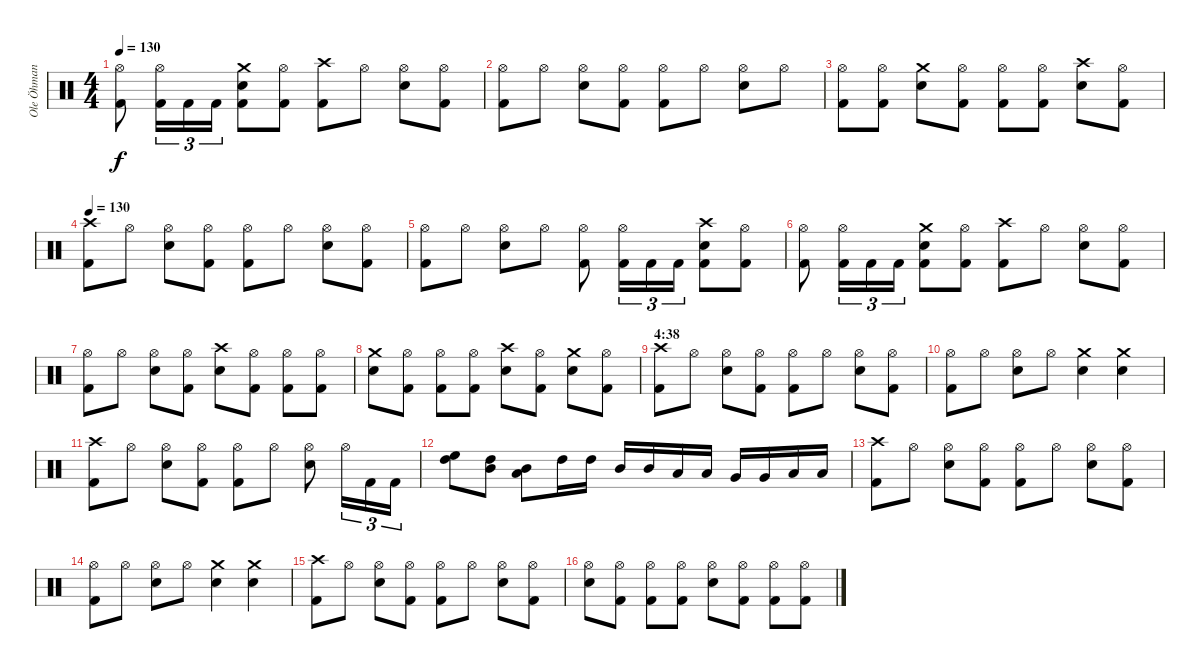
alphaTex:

\track ("Ole Öhman" "Ole Öhman") {instrument percussion}
\staff {score}
\articulation defaults
\ts (4 4)
\tempo 130
\clef neutral
\ks c
("Hi-Hat (open)" "Kick (hit) 2").8{dy f} ("Hi-Hat (open)" "Kick (hit) 2").16{tu (3 2)} "Kick (hit) 2".16{tu (3 2)} "Kick (hit) 2".16{tu (3 2)} ("Crash medium (hit)" "Electric Snare (hit)" "Kick (hit) 2").8 ("Hi-Hat (open)" "Kick (hit) 2").8 ("Crash high (hit)" "Kick (hit) 2").8 "Hi-Hat (open)".8 ("Hi-Hat (open)" "Electric Snare (hit)").8 ("Hi-Hat (open)" "Kick (hit) 2").8 |
("Hi-Hat (open)" "Kick (hit) 2").8 "Hi-Hat (open)".8 ("Hi-Hat (open)" "Electric Snare (hit)").8 ("Hi-Hat (open)" "Kick (hit) 2").8 ("Hi-Hat (open)" "Kick (hit) 2").8 "Hi-Hat (open)".8 ("Hi-Hat (open)" "Electric Snare (hit)").8 "Hi-Hat (open)".8 |
("Hi-Hat (open)" "Kick (hit) 2").8 ("Hi-Hat (open)" "Kick (hit) 2").8 ("Crash medium (hit)" "Electric Snare (hit)").8 ("Hi-Hat (open)" "Kick (hit) 2").8 ("Hi-Hat (open)" "Kick (hit) 2").8 ("Hi-Hat (open)" "Kick (hit) 2").8 ("Crash high (hit)" "Electric Snare (hit)").8 ("Hi-Hat (open)" "Kick (hit) 2").8 |
\tempo 130
("Crash high (hit)" "Kick (hit) 2").8 "Hi-Hat (open)".8 ("Hi-Hat (open)" "Electric Snare (hit)").8 ("Hi-Hat (open)" "Kick (hit) 2").8 ("Hi-Hat (open)" "Kick (hit) 2").8 "Hi-Hat (open)".8 ("Hi-Hat (open)" "Electric Snare (hit)").8 ("Hi-Hat (open)" "Kick (hit) 2").8 |
("Hi-Hat (open)" "Kick (hit) 2").8 "Hi-Hat (open)".8 ("Hi-Hat (open)" "Electric Snare (hit)").8 "Hi-Hat (open)".8 ("Hi-Hat (open)" "Kick (hit) 2").8 ("Hi-Hat (open)" "Kick (hit) 2").16{tu (3 2)} "Kick (hit) 2".16{tu (3 2)} "Kick (hit) 2".16{tu (3 2)} ("Crash high (hit)" "Electric Snare (hit)" "Kick (hit) 2").8 ("Hi-Hat (open)" "Kick (hit) 2").8 |
("Hi-Hat (open)" "Kick (hit) 2").8 ("Hi-Hat (open)" "Kick (hit) 2").16{tu (3 2)} "Kick (hit) 2".16{tu (3 2)} "Kick (hit) 2".16{tu (3 2)} ("Crash medium (hit)" "Electric Snare (hit)" "Kick (hit) 2").8 ("Hi-Hat (open)" "Kick (hit) 2").8 ("Crash high (hit)" "Kick (hit) 2").8 "Hi-Hat (open)".8 ("Hi-Hat (open)" "Electric Snare (hit)").8 ("Hi-Hat (open)" "Kick (hit) 2").8 |
("Hi-Hat (open)" "Kick (hit) 2").8 "Hi-Hat (open)".8 ("Hi-Hat (open)" "Electric Snare (hit)").8 ("Hi-Hat (open)" "Kick (hit) 2").8 ("Crash high (hit)" "Electric Snare (hit)").8 ("Hi-Hat (open)" "Kick (hit) 2").8 ("Hi-Hat (open)" "Kick (hit) 2").8 ("Hi-Hat (open)" "Kick (hit) 2").8 |
("Crash medium (hit)" "Electric Snare (hit)").8 ("Hi-Hat (open)" "Kick (hit) 2").8 ("Hi-Hat (open)" "Kick (hit) 2").8 ("Hi-Hat (open)" "Kick (hit) 2").8 ("Crash high (hit)" "Electric Snare (hit)").8 ("Hi-Hat (open)" "Kick (hit) 2").8 ("Crash medium (hit)" "Electric Snare (hit)").8 ("Hi-Hat (open)" "Kick (hit) 2").8 |
\section ("" "4:38")
("Crash high (hit)" "Kick (hit) 2").8 "Hi-Hat (open)".8 ("Hi-Hat (open)" "Electric Snare (hit)").8 ("Hi-Hat (open)" "Kick (hit) 2").8 ("Hi-Hat (open)" "Kick (hit) 2").8 "Hi-Hat (open)".8 ("Hi-Hat (open)" "Electric Snare (hit)").8 ("Hi-Hat (open)" "Kick (hit) 2").8 |
("Hi-Hat (open)" "Kick (hit) 2").8 "Hi-Hat (open)".8 ("Hi-Hat (open)" "Electric Snare (hit)").8 "Hi-Hat (open)".8 ("Crash medium (hit)" "Electric Snare (hit)").4 ("Crash medium (hit)" "Electric Snare (hit)").4 |
("Crash high (hit)" "Kick (hit) 2").8 "Hi-Hat (open)".8 ("Hi-Hat (open)" "Electric Snare (hit)").8 ("Hi-Hat (open)" "Kick (hit) 2").8 ("Hi-Hat (open)" "Kick (hit) 2").8 "Hi-Hat (open)".8 ("Hi-Hat (open)" "Electric Snare (hit)").8 "Hi-Hat (open)".16{tu (3 2)} "Kick (hit) 2".16{tu (3 2)} "Kick (hit) 2".16{tu (3 2)} |
("High Floor Tom (hit)" "High Tom (hit)").8 ("High Tom (hit)" "Mid Tom (hit)").8 ("Mid Tom (hit)" "Low Tom (hit)").8 "High Tom (hit)".16 "High Tom (hit)".16 "Mid Tom (hit)".16 "Mid Tom (hit)".16 "Low Tom (hit)".16 "Low Tom (hit)".16 "Very Low Tom (hit)".16 "Very Low Tom (hit)".16 "Low Floor Tom (hit)".16 "Low Floor Tom (hit)".16 |
("Crash high (hit)" "Kick (hit) 2").8 "Hi-Hat (open)".8 ("Hi-Hat (open)" "Electric Snare (hit)").8 ("Hi-Hat (open)" "Kick (hit) 2").8 ("Hi-Hat (open)" "Kick (hit) 2").8 "Hi-Hat (open)".8 ("Hi-Hat (open)" "Electric Snare (hit)").8 ("Hi-Hat (open)" "Kick (hit) 2").8 |
("Hi-Hat (open)" "Kick (hit) 2").8 "Hi-Hat (open)".8 ("Hi-Hat (open)" "Electric Snare (hit)").8 "Hi-Hat (open)".8 ("Crash medium (hit)" "Electric Snare (hit)").4 ("Crash medium (hit)" "Electric Snare (hit)").4 |
("Crash high (hit)" "Kick (hit) 2").8 "Hi-Hat (open)".8 ("Hi-Hat (open)" "Electric Snare (hit)").8 ("Hi-Hat (open)" "Kick (hit) 2").8 ("Hi-Hat (open)" "Kick (hit) 2").8 "Hi-Hat (open)".8 ("Hi-Hat (open)" "Electric Snare (hit)").8 ("Hi-Hat (open)" "Kick (hit) 2").8 |
("Hi-Hat (open)" "Electric Snare (hit)").8 ("Hi-Hat (open)" "Kick (hit) 2").8 ("Hi-Hat (open)" "Kick (hit) 2").8 ("Hi-Hat (open)" "Kick (hit) 2").8 ("Hi-Hat (open)" "Electric Snare (hit)").8 ("Hi-Hat (open)" "Kick (hit) 2").8 ("Hi-Hat (open)" "Kick (hit) 2").8 ("Hi-Hat (open)" "Kick (hit) 2").8
